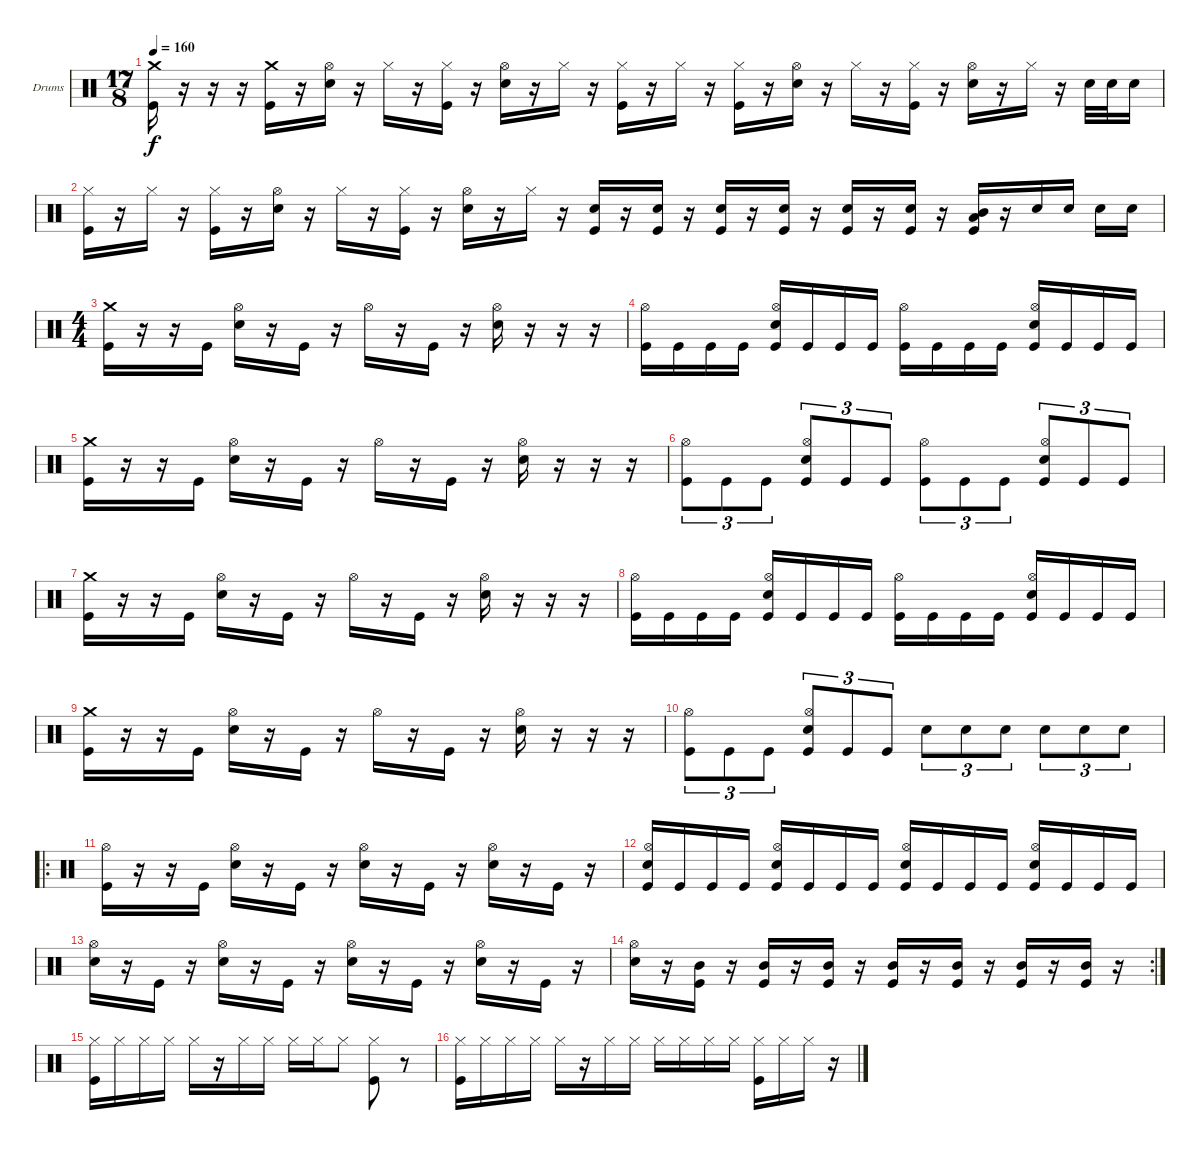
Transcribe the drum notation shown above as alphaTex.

\bracketExtendMode groupsimilarinstruments
\firstSystemTrackNameOrientation horizontal
\otherSystemsTrackNameOrientation horizontal
\track ("Drumkit" "Drums") {solo instrument percussion}
\staff {score}
\articulation defaults
\ts (17 8)
\tempo 160
\clef neutral
\ks c
("Crash medium (hit)" "Kick (hit)").16{dy f} r.16 r.16 r.16 ("Crash medium (hit)" "Kick (hit)").16 r.16 ("Hi-Hat (open)" "Snare (hit) 2").16 r.16 "Hi-Hat (closed)".16 r.16 ("Hi-Hat (closed)" "Kick (hit)").16 r.16 ("Hi-Hat (open)" "Snare (hit) 2").16 r.16 "Hi-Hat (closed)".16 r.16 ("Hi-Hat (closed)" "Kick (hit)").16 r.16 "Hi-Hat (closed)".16 r.16 ("Hi-Hat (closed)" "Kick (hit)").16 r.16 ("Hi-Hat (open)" "Snare (hit) 2").16 r.16 "Hi-Hat (closed)".16 r.16 ("Hi-Hat (closed)" "Kick (hit)").16 r.16 ("Hi-Hat (open)" "Snare (hit) 2").16 r.16 "Hi-Hat (closed)".16 r.16 "Snare (hit) 2".32 "Snare (hit) 2".32 "Snare (hit) 2".16 |
("Hi-Hat (closed)" "Kick (hit)").16 r.16 "Hi-Hat (closed)".16 r.16 ("Hi-Hat (closed)" "Kick (hit)").16 r.16 ("Hi-Hat (open)" "Snare (hit) 2").16 r.16 "Hi-Hat (closed)".16 r.16 ("Hi-Hat (closed)" "Kick (hit)").16 r.16 ("Hi-Hat (open)" "Snare (hit) 2").16 r.16 "Hi-Hat (closed)".16 r.16 ("Snare (hit) 2" "Kick (hit)").16 r.16 ("Snare (hit) 2" "Kick (hit)").16 r.16 ("Snare (hit) 2" "Kick (hit)").16 r.16 ("Snare (hit) 2" "Kick (hit)").16 r.16 ("Snare (hit) 2" "Kick (hit)").16 r.16 ("Snare (hit) 2" "Kick (hit)").16 r.16 ("Mid Tom (hit)" "Low Tom (hit)" "Kick (hit)").16 r.16 "Snare (hit) 2".16 "Snare (hit) 2".16 "Snare (hit) 2".16 "Snare (hit) 2".16 |
\ts (4 4)
\beaming (8 2 2 2 2)
("Crash medium (hit)" "Kick (hit)").16 r.16 r.16 "Kick (hit)".16 ("Hi-Hat (open)" "Snare (hit) 2").16 r.16 "Kick (hit)".16 r.16 "Hi-Hat (open)".16 r.16 "Kick (hit)".16 r.16 ("Hi-Hat (open)" "Snare (hit) 2").16 r.16 r.16 r.16 |
("Hi-Hat (open)" "Kick (hit)").16 "Kick (hit)".16 "Kick (hit)".16 "Kick (hit)".16 ("Hi-Hat (open)" "Snare (hit) 2" "Kick (hit)").16 "Kick (hit)".16 "Kick (hit)".16 "Kick (hit)".16 ("Hi-Hat (open)" "Kick (hit)").16 "Kick (hit)".16 "Kick (hit)".16 "Kick (hit)".16 ("Hi-Hat (open)" "Snare (hit) 2" "Kick (hit)").16 "Kick (hit)".16 "Kick (hit)".16 "Kick (hit)".16 |
("Crash medium (hit)" "Kick (hit)").16 r.16 r.16 "Kick (hit)".16 ("Hi-Hat (open)" "Snare (hit) 2").16 r.16 "Kick (hit)".16 r.16 "Hi-Hat (open)".16 r.16 "Kick (hit)".16 r.16 ("Hi-Hat (open)" "Snare (hit) 2").16 r.16 r.16 r.16 |
("Hi-Hat (open)" "Kick (hit)").8{tu (3 2)} "Kick (hit)".8{tu (3 2)} "Kick (hit)".8{tu (3 2)} ("Hi-Hat (open)" "Snare (hit) 2" "Kick (hit)").8{tu (3 2)} "Kick (hit)".8{tu (3 2)} "Kick (hit)".8{tu (3 2)} ("Hi-Hat (open)" "Kick (hit)").8{tu (3 2)} "Kick (hit)".8{tu (3 2)} "Kick (hit)".8{tu (3 2)} ("Hi-Hat (open)" "Snare (hit) 2" "Kick (hit)").8{tu (3 2)} "Kick (hit)".8{tu (3 2)} "Kick (hit)".8{tu (3 2)} |
("Crash medium (hit)" "Kick (hit)").16 r.16 r.16 "Kick (hit)".16 ("Hi-Hat (open)" "Snare (hit) 2").16 r.16 "Kick (hit)".16 r.16 "Hi-Hat (open)".16 r.16 "Kick (hit)".16 r.16 ("Hi-Hat (open)" "Snare (hit) 2").16 r.16 r.16 r.16 |
("Hi-Hat (open)" "Kick (hit)").16 "Kick (hit)".16 "Kick (hit)".16 "Kick (hit)".16 ("Hi-Hat (open)" "Snare (hit) 2" "Kick (hit)").16 "Kick (hit)".16 "Kick (hit)".16 "Kick (hit)".16 ("Hi-Hat (open)" "Kick (hit)").16 "Kick (hit)".16 "Kick (hit)".16 "Kick (hit)".16 ("Hi-Hat (open)" "Snare (hit) 2" "Kick (hit)").16 "Kick (hit)".16 "Kick (hit)".16 "Kick (hit)".16 |
("Crash medium (hit)" "Kick (hit)").16 r.16 r.16 "Kick (hit)".16 ("Hi-Hat (open)" "Snare (hit) 2").16 r.16 "Kick (hit)".16 r.16 "Hi-Hat (open)".16 r.16 "Kick (hit)".16 r.16 ("Hi-Hat (open)" "Snare (hit) 2").16 r.16 r.16 r.16 |
("Hi-Hat (open)" "Kick (hit)").8{tu (3 2)} "Kick (hit)".8{tu (3 2)} "Kick (hit)".8{tu (3 2)} ("Hi-Hat (open)" "Snare (hit) 2" "Kick (hit)").8{tu (3 2)} "Kick (hit)".8{tu (3 2)} "Kick (hit)".8{tu (3 2)} "Snare (hit) 2".8{tu (3 2)} "Snare (hit) 2".8{tu (3 2)} "Snare (hit) 2".8{tu (3 2)} "Snare (hit) 2".8{tu (3 2)} "Snare (hit) 2".8{tu (3 2)} "Snare (hit) 2".8{tu (3 2)} |
\ro
("Hi-Hat (open)" "Kick (hit)").16 r.16 r.16 "Kick (hit)".16 ("Hi-Hat (open)" "Snare (hit) 2").16 r.16 "Kick (hit)".16 r.16 ("Hi-Hat (open)" "Snare (hit) 2").16 r.16 "Kick (hit)".16 r.16 ("Hi-Hat (open)" "Snare (hit) 2").16 r.16 "Kick (hit)".16 r.16 |
("Hi-Hat (open)" "Snare (hit) 2" "Kick (hit)").16 "Kick (hit)".16 "Kick (hit)".16 "Kick (hit)".16 ("Hi-Hat (open)" "Snare (hit) 2" "Kick (hit)").16 "Kick (hit)".16 "Kick (hit)".16 "Kick (hit)".16 ("Hi-Hat (open)" "Snare (hit) 2" "Kick (hit)").16 "Kick (hit)".16 "Kick (hit)".16 "Kick (hit)".16 ("Hi-Hat (open)" "Snare (hit) 2" "Kick (hit)").16 "Kick (hit)".16 "Kick (hit)".16 "Kick (hit)".16 |
("Hi-Hat (open)" "Snare (hit) 2").16 r.16 "Kick (hit)".16 r.16 ("Hi-Hat (open)" "Snare (hit) 2").16 r.16 "Kick (hit)".16 r.16 ("Hi-Hat (open)" "Snare (hit) 2").16 r.16 "Kick (hit)".16 r.16 ("Hi-Hat (open)" "Snare (hit) 2").16 r.16 "Kick (hit)".16 r.16 |
\rc 2
("Hi-Hat (open)" "Snare (hit) 2").16 r.16 ("Mid Tom (hit)" "Kick (hit)").16 r.16 ("Mid Tom (hit)" "Kick (hit)").16 r.16 ("Mid Tom (hit)" "Kick (hit)").16 r.16 ("Mid Tom (hit)" "Kick (hit)").16 r.16 ("Mid Tom (hit)" "Kick (hit)").16 r.16 ("Mid Tom (hit)" "Kick (hit)").16 r.16 ("Mid Tom (hit)" "Kick (hit)").16 r.16 |
("Hi-Hat (closed)" "Kick (hit)").16 "Hi-Hat (closed)".16 "Hi-Hat (closed)".16 "Hi-Hat (closed)".16 "Hi-Hat (closed)".16 r.16 "Hi-Hat (closed)".16 "Hi-Hat (closed)".16 "Hi-Hat (closed)".16 "Hi-Hat (closed)".16 "Hi-Hat (closed)".8 ("Hi-Hat (closed)" "Kick (hit)").8 r.8 |
("Hi-Hat (closed)" "Kick (hit)").16 "Hi-Hat (closed)".16 "Hi-Hat (closed)".16 "Hi-Hat (closed)".16 "Hi-Hat (closed)".16 r.16 "Hi-Hat (closed)".16 "Hi-Hat (closed)".16 "Hi-Hat (closed)".16 "Hi-Hat (closed)".16 "Hi-Hat (closed)".16 "Hi-Hat (closed)".16 ("Hi-Hat (closed)" "Kick (hit)").16 "Hi-Hat (closed)".16 "Hi-Hat (closed)".16 r.16
